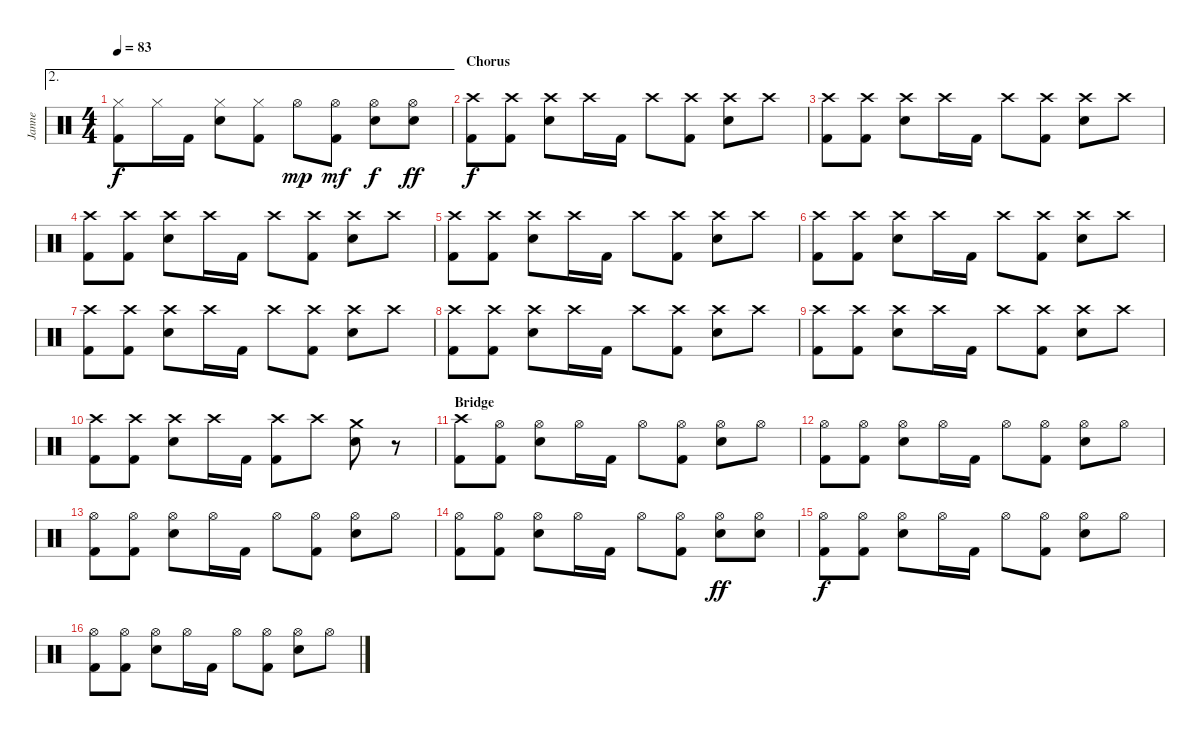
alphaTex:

\track ("Janne" "Janne") {instrument percussion}
\staff {score}
\articulation defaults
\ae 2
\ts (4 4)
\tempo 83
\clef neutral
\ks c
("Hi-Hat (closed)" "Kick (hit) 2").8{dy f} "Hi-Hat (closed)".16 "Kick (hit) 2".16 ("Hi-Hat (closed)" "Electric Snare (hit)").8 ("Hi-Hat (closed)" "Kick (hit) 2").8 "Hi-Hat (open)".8{dy mp} ("Hi-Hat (open)" "Kick (hit) 2").8{dy mf} ("Hi-Hat (open)" "Electric Snare (hit)").8{dy f} ("Hi-Hat (open)" "Electric Snare (hit)").8{dy ff} |
\section ("" "Chorus")
("Crash high (hit)" "Kick (hit) 2").8{dy f} ("Crash high (hit)" "Kick (hit) 2").8 ("Crash high (hit)" "Electric Snare (hit)").8 "Crash high (hit)".16 "Kick (hit) 2".16 "Crash high (hit)".8 ("Crash high (hit)" "Kick (hit) 2").8 ("Crash high (hit)" "Electric Snare (hit)").8 "Crash high (hit)".8 |
("Crash high (hit)" "Kick (hit) 2").8 ("Crash high (hit)" "Kick (hit) 2").8 ("Crash high (hit)" "Electric Snare (hit)").8 "Crash high (hit)".16 "Kick (hit) 2".16 "Crash high (hit)".8 ("Crash high (hit)" "Kick (hit) 2").8 ("Crash high (hit)" "Electric Snare (hit)").8 "Crash high (hit)".8 |
("Crash high (hit)" "Kick (hit) 2").8 ("Crash high (hit)" "Kick (hit) 2").8 ("Crash high (hit)" "Electric Snare (hit)").8 "Crash high (hit)".16 "Kick (hit) 2".16 "Crash high (hit)".8 ("Crash high (hit)" "Kick (hit) 2").8 ("Crash high (hit)" "Electric Snare (hit)").8 "Crash high (hit)".8 |
("Crash high (hit)" "Kick (hit) 2").8 ("Crash high (hit)" "Kick (hit) 2").8 ("Crash high (hit)" "Electric Snare (hit)").8 "Crash high (hit)".16 "Kick (hit) 2".16 "Crash high (hit)".8 ("Crash high (hit)" "Kick (hit) 2").8 ("Crash high (hit)" "Electric Snare (hit)").8 "Crash high (hit)".8 |
("Crash high (hit)" "Kick (hit) 2").8 ("Crash high (hit)" "Kick (hit) 2").8 ("Crash high (hit)" "Electric Snare (hit)").8 "Crash high (hit)".16 "Kick (hit) 2".16 "Crash high (hit)".8 ("Crash high (hit)" "Kick (hit) 2").8 ("Crash high (hit)" "Electric Snare (hit)").8 "Crash high (hit)".8 |
("Crash high (hit)" "Kick (hit) 2").8 ("Crash high (hit)" "Kick (hit) 2").8 ("Crash high (hit)" "Electric Snare (hit)").8 "Crash high (hit)".16 "Kick (hit) 2".16 "Crash high (hit)".8 ("Crash high (hit)" "Kick (hit) 2").8 ("Crash high (hit)" "Electric Snare (hit)").8 "Crash high (hit)".8 |
("Crash high (hit)" "Kick (hit) 2").8 ("Crash high (hit)" "Kick (hit) 2").8 ("Crash high (hit)" "Electric Snare (hit)").8 "Crash high (hit)".16 "Kick (hit) 2".16 "Crash high (hit)".8 ("Crash high (hit)" "Kick (hit) 2").8 ("Crash high (hit)" "Electric Snare (hit)").8 "Crash high (hit)".8 |
("Crash high (hit)" "Kick (hit) 2").8 ("Crash high (hit)" "Kick (hit) 2").8 ("Crash high (hit)" "Electric Snare (hit)").8 "Crash high (hit)".16 "Kick (hit) 2".16 "Crash high (hit)".8 ("Crash high (hit)" "Kick (hit) 2").8 ("Crash high (hit)" "Electric Snare (hit)").8 "Crash high (hit)".8 |
("Crash high (hit)" "Kick (hit) 2").8 ("Crash high (hit)" "Kick (hit) 2").8 ("Crash high (hit)" "Electric Snare (hit)").8 "Crash high (hit)".16 "Kick (hit) 2".16 ("Crash high (hit)" "Kick (hit) 2").8 "Crash high (hit)".8 ("Crash medium (hit)" "Electric Snare (hit)").8 r.8 |
\section ("" "Bridge")
("Crash high (hit)" "Kick (hit) 2").8 ("Hi-Hat (open)" "Kick (hit) 2").8 ("Hi-Hat (open)" "Electric Snare (hit)").8 "Hi-Hat (open)".16 "Kick (hit) 2".16 "Hi-Hat (open)".8 ("Hi-Hat (open)" "Kick (hit) 2").8 ("Hi-Hat (open)" "Electric Snare (hit)").8 "Hi-Hat (open)".8 |
("Hi-Hat (open)" "Kick (hit) 2").8 ("Hi-Hat (open)" "Kick (hit) 2").8 ("Hi-Hat (open)" "Electric Snare (hit)").8 "Hi-Hat (open)".16 "Kick (hit) 2".16 "Hi-Hat (open)".8 ("Hi-Hat (open)" "Kick (hit) 2").8 ("Hi-Hat (open)" "Electric Snare (hit)").8 "Hi-Hat (open)".8 |
("Hi-Hat (open)" "Kick (hit) 2").8 ("Hi-Hat (open)" "Kick (hit) 2").8 ("Hi-Hat (open)" "Electric Snare (hit)").8 "Hi-Hat (open)".16 "Kick (hit) 2".16 "Hi-Hat (open)".8 ("Hi-Hat (open)" "Kick (hit) 2").8 ("Hi-Hat (open)" "Electric Snare (hit)").8 "Hi-Hat (open)".8 |
("Hi-Hat (open)" "Kick (hit) 2").8 ("Hi-Hat (open)" "Kick (hit) 2").8 ("Hi-Hat (open)" "Electric Snare (hit)").8 "Hi-Hat (open)".16 "Kick (hit) 2".16 "Hi-Hat (open)".8 ("Hi-Hat (open)" "Kick (hit) 2").8 ("Hi-Hat (open)" "Electric Snare (hit)").8{dy ff} ("Hi-Hat (open)" "Electric Snare (hit)").8 |
("Hi-Hat (open)" "Kick (hit) 2").8{dy f} ("Hi-Hat (open)" "Kick (hit) 2").8 ("Hi-Hat (open)" "Electric Snare (hit)").8 "Hi-Hat (open)".16 "Kick (hit) 2".16 "Hi-Hat (open)".8 ("Hi-Hat (open)" "Kick (hit) 2").8 ("Hi-Hat (open)" "Electric Snare (hit)").8 "Hi-Hat (open)".8 |
("Hi-Hat (open)" "Kick (hit) 2").8 ("Hi-Hat (open)" "Kick (hit) 2").8 ("Hi-Hat (open)" "Electric Snare (hit)").8 "Hi-Hat (open)".16 "Kick (hit) 2".16 "Hi-Hat (open)".8 ("Hi-Hat (open)" "Kick (hit) 2").8 ("Hi-Hat (open)" "Electric Snare (hit)").8 "Hi-Hat (open)".8
